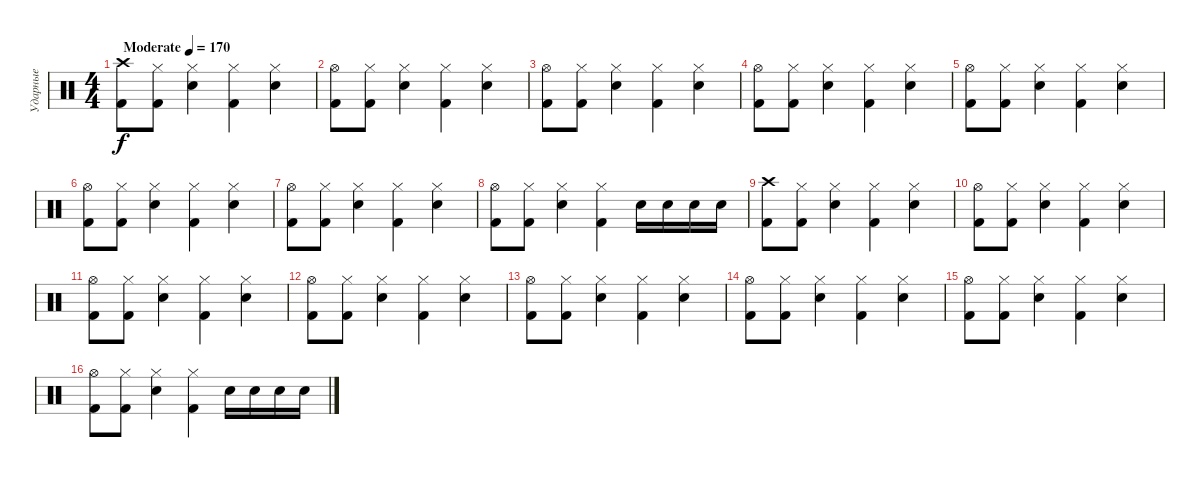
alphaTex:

\track ("Ударные" "Ударные") {instrument percussion}
\staff {score}
\articulation defaults
\ts (4 4)
\tempo (170 "Moderate")
\clef neutral
\ks c
("Crash high (hit)" "Kick (hit) 2").8{dy f} ("Hi-Hat (closed)" "Kick (hit) 2").8 ("Snare (hit) 2" "Hi-Hat (closed)").4 ("Hi-Hat (closed)" "Kick (hit) 2").4 ("Snare (hit) 2" "Hi-Hat (closed)").4 |
("Hi-Hat (open)" "Kick (hit) 2").8 ("Hi-Hat (closed)" "Kick (hit) 2").8 ("Snare (hit) 2" "Hi-Hat (closed)").4 ("Hi-Hat (closed)" "Kick (hit) 2").4 ("Snare (hit) 2" "Hi-Hat (closed)").4 |
("Hi-Hat (open)" "Kick (hit) 2").8 ("Hi-Hat (closed)" "Kick (hit) 2").8 ("Snare (hit) 2" "Hi-Hat (closed)").4 ("Hi-Hat (closed)" "Kick (hit) 2").4 ("Snare (hit) 2" "Hi-Hat (closed)").4 |
("Hi-Hat (open)" "Kick (hit) 2").8 ("Hi-Hat (closed)" "Kick (hit) 2").8 ("Snare (hit) 2" "Hi-Hat (closed)").4 ("Hi-Hat (closed)" "Kick (hit) 2").4 ("Snare (hit) 2" "Hi-Hat (closed)").4 |
("Hi-Hat (open)" "Kick (hit) 2").8 ("Hi-Hat (closed)" "Kick (hit) 2").8 ("Snare (hit) 2" "Hi-Hat (closed)").4 ("Hi-Hat (closed)" "Kick (hit) 2").4 ("Snare (hit) 2" "Hi-Hat (closed)").4 |
("Hi-Hat (open)" "Kick (hit) 2").8 ("Hi-Hat (closed)" "Kick (hit) 2").8 ("Snare (hit) 2" "Hi-Hat (closed)").4 ("Hi-Hat (closed)" "Kick (hit) 2").4 ("Snare (hit) 2" "Hi-Hat (closed)").4 |
("Hi-Hat (open)" "Kick (hit) 2").8 ("Hi-Hat (closed)" "Kick (hit) 2").8 ("Snare (hit) 2" "Hi-Hat (closed)").4 ("Hi-Hat (closed)" "Kick (hit) 2").4 ("Snare (hit) 2" "Hi-Hat (closed)").4 |
("Hi-Hat (open)" "Kick (hit) 2").8 ("Hi-Hat (closed)" "Kick (hit) 2").8 ("Snare (hit) 2" "Hi-Hat (closed)").4 ("Hi-Hat (closed)" "Kick (hit) 2").4 "Snare (hit) 2".16 "Snare (hit) 2".16 "Snare (hit) 2".16 "Snare (hit) 2".16 |
("Crash high (hit)" "Kick (hit) 2").8 ("Hi-Hat (closed)" "Kick (hit) 2").8 ("Snare (hit) 2" "Hi-Hat (closed)").4 ("Hi-Hat (closed)" "Kick (hit) 2").4 ("Snare (hit) 2" "Hi-Hat (closed)").4 |
("Hi-Hat (open)" "Kick (hit) 2").8 ("Hi-Hat (closed)" "Kick (hit) 2").8 ("Snare (hit) 2" "Hi-Hat (closed)").4 ("Hi-Hat (closed)" "Kick (hit) 2").4 ("Snare (hit) 2" "Hi-Hat (closed)").4 |
("Hi-Hat (open)" "Kick (hit) 2").8 ("Hi-Hat (closed)" "Kick (hit) 2").8 ("Snare (hit) 2" "Hi-Hat (closed)").4 ("Hi-Hat (closed)" "Kick (hit) 2").4 ("Snare (hit) 2" "Hi-Hat (closed)").4 |
("Hi-Hat (open)" "Kick (hit) 2").8 ("Hi-Hat (closed)" "Kick (hit) 2").8 ("Snare (hit) 2" "Hi-Hat (closed)").4 ("Hi-Hat (closed)" "Kick (hit) 2").4 ("Snare (hit) 2" "Hi-Hat (closed)").4 |
("Hi-Hat (open)" "Kick (hit) 2").8 ("Hi-Hat (closed)" "Kick (hit) 2").8 ("Snare (hit) 2" "Hi-Hat (closed)").4 ("Hi-Hat (closed)" "Kick (hit) 2").4 ("Snare (hit) 2" "Hi-Hat (closed)").4 |
("Hi-Hat (open)" "Kick (hit) 2").8 ("Hi-Hat (closed)" "Kick (hit) 2").8 ("Snare (hit) 2" "Hi-Hat (closed)").4 ("Hi-Hat (closed)" "Kick (hit) 2").4 ("Snare (hit) 2" "Hi-Hat (closed)").4 |
("Hi-Hat (open)" "Kick (hit) 2").8 ("Hi-Hat (closed)" "Kick (hit) 2").8 ("Snare (hit) 2" "Hi-Hat (closed)").4 ("Hi-Hat (closed)" "Kick (hit) 2").4 ("Snare (hit) 2" "Hi-Hat (closed)").4 |
("Hi-Hat (open)" "Kick (hit) 2").8 ("Hi-Hat (closed)" "Kick (hit) 2").8 ("Snare (hit) 2" "Hi-Hat (closed)").4 ("Hi-Hat (closed)" "Kick (hit) 2").4 "Snare (hit) 2".16 "Snare (hit) 2".16 "Snare (hit) 2".16 "Snare (hit) 2".16
